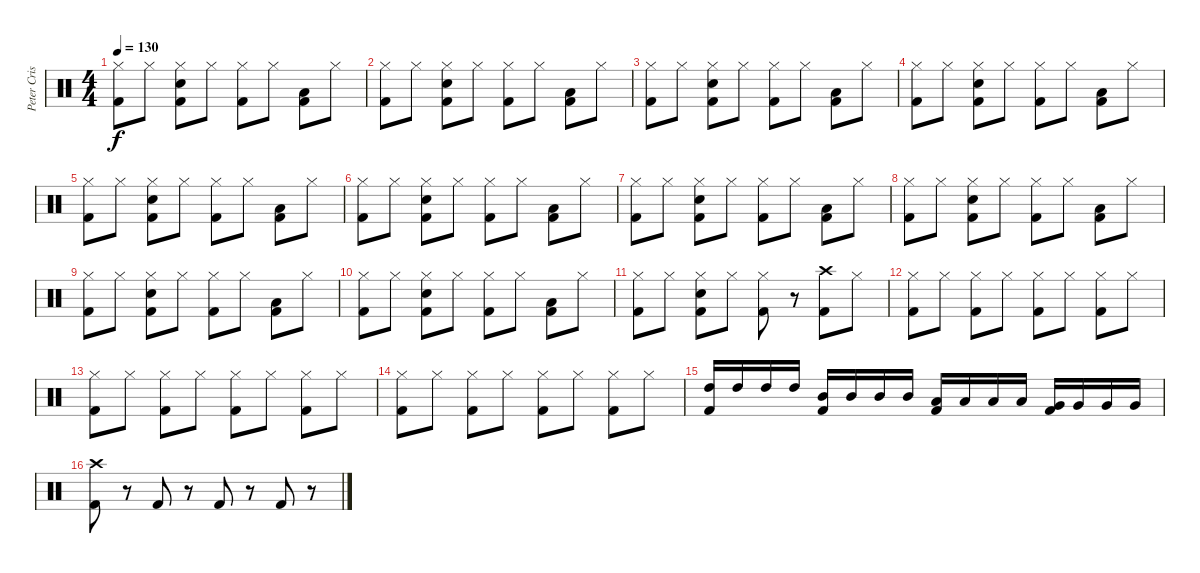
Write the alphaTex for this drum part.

\track ("Peter Criss" "Peter Cris") {instrument percussion}
\staff {score}
\articulation defaults
\ts (4 4)
\tempo 130
\clef neutral
\ks c
("Hi-Hat (closed)" "Kick (hit) 2").8{dy f} "Hi-Hat (closed)".8 ("Hi-Hat (closed)" "Electric Snare (hit)" "Kick (hit) 2").8 "Hi-Hat (closed)".8 ("Hi-Hat (closed)" "Kick (hit) 2").8 "Hi-Hat (closed)".8 ("Low Tom (hit)" "Kick (hit) 2").8 "Hi-Hat (closed)".8 |
("Hi-Hat (closed)" "Kick (hit) 2").8 "Hi-Hat (closed)".8 ("Hi-Hat (closed)" "Electric Snare (hit)" "Kick (hit) 2").8 "Hi-Hat (closed)".8 ("Hi-Hat (closed)" "Kick (hit) 2").8 "Hi-Hat (closed)".8 ("Low Tom (hit)" "Kick (hit) 2").8 "Hi-Hat (closed)".8 |
("Hi-Hat (closed)" "Kick (hit) 2").8 "Hi-Hat (closed)".8 ("Hi-Hat (closed)" "Electric Snare (hit)" "Kick (hit) 2").8 "Hi-Hat (closed)".8 ("Hi-Hat (closed)" "Kick (hit) 2").8 "Hi-Hat (closed)".8 ("Low Tom (hit)" "Kick (hit) 2").8 "Hi-Hat (closed)".8 |
("Hi-Hat (closed)" "Kick (hit) 2").8 "Hi-Hat (closed)".8 ("Hi-Hat (closed)" "Electric Snare (hit)" "Kick (hit) 2").8 "Hi-Hat (closed)".8 ("Hi-Hat (closed)" "Kick (hit) 2").8 "Hi-Hat (closed)".8 ("Low Tom (hit)" "Kick (hit) 2").8 "Hi-Hat (closed)".8 |
("Hi-Hat (closed)" "Kick (hit) 2").8 "Hi-Hat (closed)".8 ("Hi-Hat (closed)" "Electric Snare (hit)" "Kick (hit) 2").8 "Hi-Hat (closed)".8 ("Hi-Hat (closed)" "Kick (hit) 2").8 "Hi-Hat (closed)".8 ("Low Tom (hit)" "Kick (hit) 2").8 "Hi-Hat (closed)".8 |
("Hi-Hat (closed)" "Kick (hit) 2").8 "Hi-Hat (closed)".8 ("Hi-Hat (closed)" "Electric Snare (hit)" "Kick (hit) 2").8 "Hi-Hat (closed)".8 ("Hi-Hat (closed)" "Kick (hit) 2").8 "Hi-Hat (closed)".8 ("Low Tom (hit)" "Kick (hit) 2").8 "Hi-Hat (closed)".8 |
("Hi-Hat (closed)" "Kick (hit) 2").8 "Hi-Hat (closed)".8 ("Hi-Hat (closed)" "Electric Snare (hit)" "Kick (hit) 2").8 "Hi-Hat (closed)".8 ("Hi-Hat (closed)" "Kick (hit) 2").8 "Hi-Hat (closed)".8 ("Low Tom (hit)" "Kick (hit) 2").8 "Hi-Hat (closed)".8 |
("Hi-Hat (closed)" "Kick (hit) 2").8 "Hi-Hat (closed)".8 ("Hi-Hat (closed)" "Electric Snare (hit)" "Kick (hit) 2").8 "Hi-Hat (closed)".8 ("Hi-Hat (closed)" "Kick (hit) 2").8 "Hi-Hat (closed)".8 ("Low Tom (hit)" "Kick (hit) 2").8 "Hi-Hat (closed)".8 |
("Hi-Hat (closed)" "Kick (hit) 2").8 "Hi-Hat (closed)".8 ("Hi-Hat (closed)" "Electric Snare (hit)" "Kick (hit) 2").8 "Hi-Hat (closed)".8 ("Hi-Hat (closed)" "Kick (hit) 2").8 "Hi-Hat (closed)".8 ("Low Tom (hit)" "Kick (hit) 2").8 "Hi-Hat (closed)".8 |
("Hi-Hat (closed)" "Kick (hit) 2").8 "Hi-Hat (closed)".8 ("Hi-Hat (closed)" "Electric Snare (hit)" "Kick (hit) 2").8 "Hi-Hat (closed)".8 ("Hi-Hat (closed)" "Kick (hit) 2").8 "Hi-Hat (closed)".8 ("Low Tom (hit)" "Kick (hit) 2").8 "Hi-Hat (closed)".8 |
("Hi-Hat (closed)" "Kick (hit) 2").8 "Hi-Hat (closed)".8 ("Hi-Hat (closed)" "Electric Snare (hit)" "Kick (hit) 2").8 "Hi-Hat (closed)".8 ("Hi-Hat (closed)" "Kick (hit) 2").8 r.8 ("Crash high (hit)" "Kick (hit) 2").8 "Hi-Hat (closed)".8 |
("Hi-Hat (closed)" "Kick (hit) 2").8 "Hi-Hat (closed)".8 ("Hi-Hat (closed)" "Kick (hit) 2").8 "Hi-Hat (closed)".8 ("Hi-Hat (closed)" "Kick (hit) 2").8 "Hi-Hat (closed)".8 ("Hi-Hat (closed)" "Kick (hit) 2").8 "Hi-Hat (closed)".8 |
("Hi-Hat (closed)" "Kick (hit) 2").8 "Hi-Hat (closed)".8 ("Hi-Hat (closed)" "Kick (hit) 2").8 "Hi-Hat (closed)".8 ("Hi-Hat (closed)" "Kick (hit) 2").8 "Hi-Hat (closed)".8 ("Hi-Hat (closed)" "Kick (hit) 2").8 "Hi-Hat (closed)".8 |
("Hi-Hat (closed)" "Kick (hit) 2").8 "Hi-Hat (closed)".8 ("Hi-Hat (closed)" "Kick (hit) 2").8 "Hi-Hat (closed)".8 ("Hi-Hat (closed)" "Kick (hit) 2").8 "Hi-Hat (closed)".8 ("Hi-Hat (closed)" "Kick (hit) 2").8 "Hi-Hat (closed)".8 |
("High Tom (hit)" "Kick (hit) 2").16 "High Tom (hit)".16 "High Tom (hit)".16 "High Tom (hit)".16 ("Mid Tom (hit)" "Kick (hit) 2").16 "Mid Tom (hit)".16 "Mid Tom (hit)".16 "Mid Tom (hit)".16 ("Low Tom (hit)" "Kick (hit) 2").16 "Low Tom (hit)".16 "Low Tom (hit)".16 "Low Tom (hit)".16 ("Very Low Tom (hit)" "Kick (hit) 2").16 "Very Low Tom (hit)".16 "Very Low Tom (hit)".16 "Very Low Tom (hit)".16 |
("Crash high (hit)" "Kick (hit) 2").8 r.8 "Kick (hit) 2".8 r.8 "Kick (hit) 2".8 r.8 "Kick (hit) 2".8 r.8
